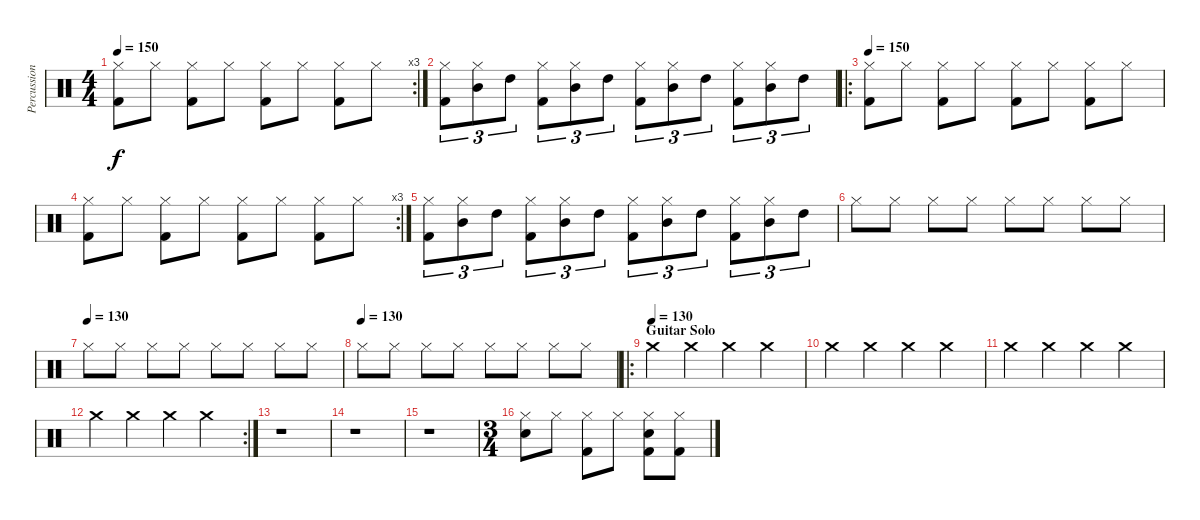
\track ("Percussion" "Percussion") {instrument percussion}
\staff {score}
\articulation defaults
\rc 3
\ts (4 4)
\tempo 150
\clef neutral
\ks c
("Hi-Hat (closed)" "Kick (hit) 2").8{dy f} "Hi-Hat (closed)".8 ("Hi-Hat (closed)" "Kick (hit) 2").8 "Hi-Hat (closed)".8 ("Hi-Hat (closed)" "Kick (hit) 2").8 "Hi-Hat (closed)".8 ("Hi-Hat (closed)" "Kick (hit) 2").8 "Hi-Hat (closed)".8 |
("Hi-Hat (closed)" "Kick (hit) 2").8{tu (3 2)} ("Hi-Hat (closed)" "Mid Tom (hit)").8{tu (3 2)} "High Tom (hit)".8{tu (3 2)} ("Hi-Hat (closed)" "Kick (hit) 2").8{tu (3 2)} ("Hi-Hat (closed)" "Mid Tom (hit)").8{tu (3 2)} "High Tom (hit)".8{tu (3 2)} ("Hi-Hat (closed)" "Kick (hit) 2").8{tu (3 2)} ("Hi-Hat (closed)" "Mid Tom (hit)").8{tu (3 2)} "High Tom (hit)".8{tu (3 2)} ("Hi-Hat (closed)" "Kick (hit) 2").8{tu (3 2)} ("Hi-Hat (closed)" "Mid Tom (hit)").8{tu (3 2)} "High Tom (hit)".8{tu (3 2)} |
\ro
\tempo 150
("Hi-Hat (closed)" "Kick (hit) 2").8 "Hi-Hat (closed)".8 ("Hi-Hat (closed)" "Kick (hit) 2").8 "Hi-Hat (closed)".8 ("Hi-Hat (closed)" "Kick (hit) 2").8 "Hi-Hat (closed)".8 ("Hi-Hat (closed)" "Kick (hit) 2").8 "Hi-Hat (closed)".8 |
\rc 3
("Hi-Hat (closed)" "Kick (hit) 2").8 "Hi-Hat (closed)".8 ("Hi-Hat (closed)" "Kick (hit) 2").8 "Hi-Hat (closed)".8 ("Hi-Hat (closed)" "Kick (hit) 2").8 "Hi-Hat (closed)".8 ("Hi-Hat (closed)" "Kick (hit) 2").8 "Hi-Hat (closed)".8 |
("Hi-Hat (closed)" "Kick (hit) 2").8{tu (3 2)} ("Hi-Hat (closed)" "Mid Tom (hit)").8{tu (3 2)} "High Tom (hit)".8{tu (3 2)} ("Hi-Hat (closed)" "Kick (hit) 2").8{tu (3 2)} ("Hi-Hat (closed)" "Mid Tom (hit)").8{tu (3 2)} "High Tom (hit)".8{tu (3 2)} ("Hi-Hat (closed)" "Kick (hit) 2").8{tu (3 2)} ("Hi-Hat (closed)" "Mid Tom (hit)").8{tu (3 2)} "High Tom (hit)".8{tu (3 2)} ("Hi-Hat (closed)" "Kick (hit) 2").8{tu (3 2)} ("Hi-Hat (closed)" "Mid Tom (hit)").8{tu (3 2)} "High Tom (hit)".8{tu (3 2)} |
"Hi-Hat (closed)".8 "Hi-Hat (closed)".8 "Hi-Hat (closed)".8 "Hi-Hat (closed)".8 "Hi-Hat (closed)".8 "Hi-Hat (closed)".8 "Hi-Hat (closed)".8 "Hi-Hat (closed)".8 |
\tempo (130)
"Hi-Hat (closed)".8 "Hi-Hat (closed)".8 "Hi-Hat (closed)".8 "Hi-Hat (closed)".8 "Hi-Hat (closed)".8 "Hi-Hat (closed)".8 "Hi-Hat (closed)".8 "Hi-Hat (closed)".8 |
\tempo (130)
"Hi-Hat (closed)".8 "Hi-Hat (closed)".8 "Hi-Hat (closed)".8 "Hi-Hat (closed)".8 "Hi-Hat (closed)".8 "Hi-Hat (closed)".8 "Hi-Hat (closed)".8 "Hi-Hat (closed)".8 |
\ro
\section ("" "Guitar Solo")
\tempo (130)
"Crash medium (hit)".4 "Crash medium (hit)".4 "Crash medium (hit)".4 "Crash medium (hit)".4 |
"Crash medium (hit)".4 "Crash medium (hit)".4 "Crash medium (hit)".4 "Crash medium (hit)".4 |
"Crash medium (hit)".4 "Crash medium (hit)".4 "Crash medium (hit)".4 "Crash medium (hit)".4 |
\rc 2 "Crash medium (hit)".4 "Crash medium (hit)".4 "Crash medium (hit)".4 "Crash medium (hit)".4
|
r.1 |
r.1 |
r.1 |
\ts (3 4)
("Hi-Hat (closed)" "Snare (hit) 2").8 "Hi-Hat (closed)".8 ("Hi-Hat (closed)" "Kick (hit) 2").8 "Hi-Hat (closed)".8 ("Hi-Hat (closed)" "Snare (hit) 2" "Kick (hit) 2").8 ("Hi-Hat (closed)" "Kick (hit) 2").8
